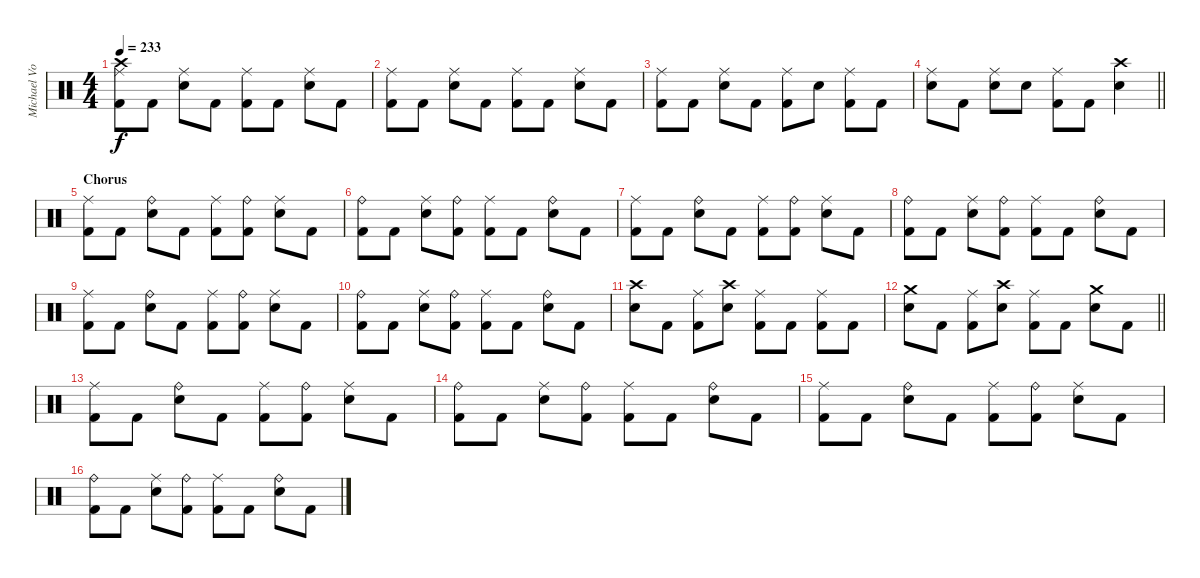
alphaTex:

\track ("Michael Von Knorring" "Michael Vo") {instrument percussion}
\staff {score}
\articulation defaults
\ts (4 4)
\tempo 233
\clef neutral
\ks c
("Crash high (hit)" "Ride (middle)" "Kick (hit) 2").8{dy f} "Kick (hit) 2".8 ("Ride (middle)" "Snare (hit) 2").8 "Kick (hit) 2".8 ("Ride (middle)" "Kick (hit) 2").8 "Kick (hit) 2".8 ("Ride (middle)" "Snare (hit) 2").8 "Kick (hit) 2".8 |
("Ride (middle)" "Kick (hit) 2").8 "Kick (hit) 2".8 ("Ride (middle)" "Snare (hit) 2").8 "Kick (hit) 2".8 ("Ride (middle)" "Kick (hit) 2").8 "Kick (hit) 2".8 ("Ride (middle)" "Snare (hit) 2").8 "Kick (hit) 2".8 |
("Ride (middle)" "Kick (hit) 2").8 "Kick (hit) 2".8 ("Ride (middle)" "Snare (hit) 2").8 "Kick (hit) 2".8 ("Ride (middle)" "Kick (hit) 2").8 "Snare (hit) 2".8 ("Ride (middle)" "Kick (hit) 2").8 "Kick (hit) 2".8 |
\barLineRight lightlight
("Ride (middle)" "Snare (hit) 2").8 "Kick (hit) 2".8 ("Ride (middle)" "Snare (hit) 2").8 "Snare (hit) 2".8 ("Ride (middle)" "Kick (hit) 2").8 "Kick (hit) 2".8 ("Crash high (hit)" "Snare (hit) 2").4 |
\section ("" "Chorus")
("Ride (middle)" "Kick (hit) 2").8 "Kick (hit) 2".8 ("Ride (bell)" "Snare (hit) 2").8 "Kick (hit) 2".8 ("Ride (middle)" "Kick (hit) 2").8 ("Ride (bell)" "Kick (hit) 2").8 ("Ride (middle)" "Snare (hit) 2").8 "Kick (hit) 2".8 |
("Ride (bell)" "Kick (hit) 2").8 "Kick (hit) 2".8 ("Ride (middle)" "Snare (hit) 2").8 ("Ride (bell)" "Kick (hit) 2").8 ("Ride (middle)" "Kick (hit) 2").8 "Kick (hit) 2".8 ("Ride (bell)" "Snare (hit) 2").8 "Kick (hit) 2".8 |
("Ride (middle)" "Kick (hit) 2").8 "Kick (hit) 2".8 ("Ride (bell)" "Snare (hit) 2").8 "Kick (hit) 2".8 ("Ride (middle)" "Kick (hit) 2").8 ("Ride (bell)" "Kick (hit) 2").8 ("Ride (middle)" "Snare (hit) 2").8 "Kick (hit) 2".8 |
("Ride (bell)" "Kick (hit) 2").8 "Kick (hit) 2".8 ("Ride (middle)" "Snare (hit) 2").8 ("Ride (bell)" "Kick (hit) 2").8 ("Ride (middle)" "Kick (hit) 2").8 "Kick (hit) 2".8 ("Ride (bell)" "Snare (hit) 2").8 "Kick (hit) 2".8 |
("Ride (middle)" "Kick (hit) 2").8 "Kick (hit) 2".8 ("Ride (bell)" "Snare (hit) 2").8 "Kick (hit) 2".8 ("Ride (middle)" "Kick (hit) 2").8 ("Ride (bell)" "Kick (hit) 2").8 ("Ride (middle)" "Snare (hit) 2").8 "Kick (hit) 2".8 |
("Ride (bell)" "Kick (hit) 2").8 "Kick (hit) 2".8 ("Ride (middle)" "Snare (hit) 2").8 ("Ride (bell)" "Kick (hit) 2").8 ("Ride (middle)" "Kick (hit) 2").8 "Kick (hit) 2".8 ("Ride (bell)" "Snare (hit) 2").8 "Kick (hit) 2".8 |
("Crash high (hit)" "Snare (hit) 2").8 "Kick (hit) 2".8 ("Ride (middle)" "Kick (hit) 2").8 ("Crash high (hit)" "Snare (hit) 2").8 ("Ride (middle)" "Kick (hit) 2").8 "Kick (hit) 2".8 ("Ride (middle)" "Kick (hit) 2").8 "Kick (hit) 2".8 |
\barLineRight lightlight
("Crash medium (hit)" "Snare (hit) 2").8 "Kick (hit) 2".8 ("Ride (middle)" "Kick (hit) 2").8 ("Crash high (hit)" "Snare (hit) 2").8 ("Ride (middle)" "Kick (hit) 2").8 "Kick (hit) 2".8 ("Crash medium (hit)" "Snare (hit) 2").8 "Kick (hit) 2".8 |
("Ride (middle)" "Kick (hit) 2").8 "Kick (hit) 2".8 ("Ride (bell)" "Snare (hit) 2").8 "Kick (hit) 2".8 ("Ride (middle)" "Kick (hit) 2").8 ("Ride (bell)" "Kick (hit) 2").8 ("Ride (middle)" "Snare (hit) 2").8 "Kick (hit) 2".8 |
("Ride (bell)" "Kick (hit) 2").8 "Kick (hit) 2".8 ("Ride (middle)" "Snare (hit) 2").8 ("Ride (bell)" "Kick (hit) 2").8 ("Ride (middle)" "Kick (hit) 2").8 "Kick (hit) 2".8 ("Ride (bell)" "Snare (hit) 2").8 "Kick (hit) 2".8 |
("Ride (middle)" "Kick (hit) 2").8 "Kick (hit) 2".8 ("Ride (bell)" "Snare (hit) 2").8 "Kick (hit) 2".8 ("Ride (middle)" "Kick (hit) 2").8 ("Ride (bell)" "Kick (hit) 2").8 ("Ride (middle)" "Snare (hit) 2").8 "Kick (hit) 2".8 |
("Ride (bell)" "Kick (hit) 2").8 "Kick (hit) 2".8 ("Ride (middle)" "Snare (hit) 2").8 ("Ride (bell)" "Kick (hit) 2").8 ("Ride (middle)" "Kick (hit) 2").8 "Kick (hit) 2".8 ("Ride (bell)" "Snare (hit) 2").8 "Kick (hit) 2".8
